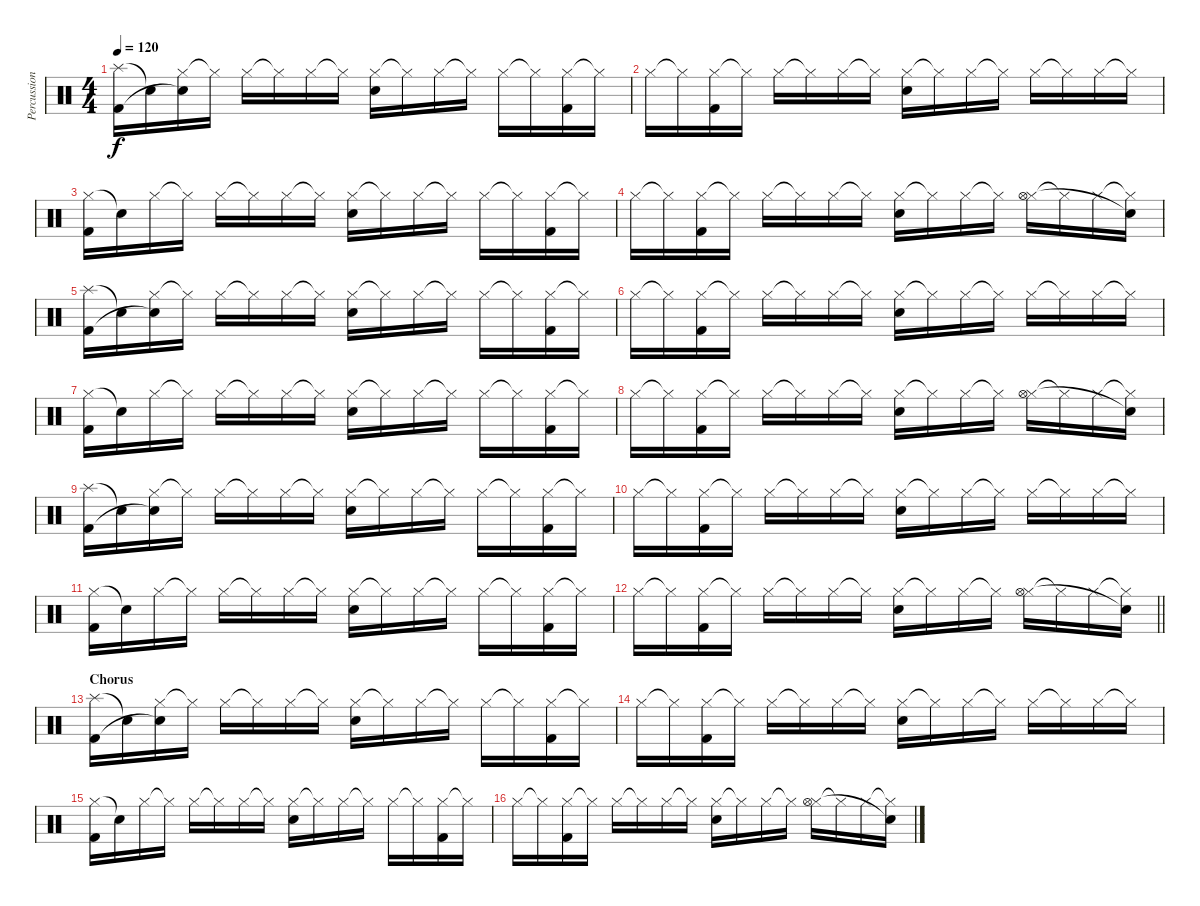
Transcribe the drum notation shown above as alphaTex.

\track ("Percussion" "Percussion") {instrument percussion}
\staff {score}
\articulation defaults
\ts (4 4)
\tempo 120
\clef neutral
\ks c
("Splash (hit)" "Kick (hit) 2").16{dy f} "Snare (hit)"{t}.16 ("Hi-Hat (closed)" "Snare (hit)"{t}).16 "Hi-Hat (closed)"{t}.16 "Hi-Hat (closed)".16 "Hi-Hat (closed)"{t}.16 "Hi-Hat (closed)".16 "Hi-Hat (closed)"{t}.16 ("Hi-Hat (closed)" "Snare (hit) 2").16 "Hi-Hat (closed)"{t}.16 "Hi-Hat (closed)".16 "Hi-Hat (closed)"{t}.16 "Hi-Hat (closed)".16 "Hi-Hat (closed)"{t}.16 ("Hi-Hat (closed)" "Kick (hit) 2").16 "Hi-Hat (closed)"{t}.16 |
"Hi-Hat (closed)".16 "Hi-Hat (closed)"{t}.16 ("Hi-Hat (closed)" "Kick (hit) 2").16 "Hi-Hat (closed)"{t}.16 "Hi-Hat (closed)".16 "Hi-Hat (closed)"{t}.16 "Hi-Hat (closed)".16 "Hi-Hat (closed)"{t}.16 ("Hi-Hat (closed)" "Snare (hit) 2").16 "Hi-Hat (closed)"{t}.16 "Hi-Hat (closed)".16 "Hi-Hat (closed)"{t}.16 "Hi-Hat (closed)".16 "Hi-Hat (closed)"{t}.16 "Hi-Hat (closed)".16 "Hi-Hat (closed)"{t}.16 |
("Hi-Hat (closed)" "Kick (hit) 2").16 "Snare (hit)"{t}.16 "Hi-Hat (closed)".16 "Hi-Hat (closed)"{t}.16 "Hi-Hat (closed)".16 "Hi-Hat (closed)"{t}.16 "Hi-Hat (closed)".16 "Hi-Hat (closed)"{t}.16 ("Hi-Hat (closed)" "Snare (hit) 2").16 "Hi-Hat (closed)"{t}.16 "Hi-Hat (closed)".16 "Hi-Hat (closed)"{t}.16 "Hi-Hat (closed)".16 "Hi-Hat (closed)"{t}.16 ("Hi-Hat (closed)" "Kick (hit) 2").16 "Hi-Hat (closed)"{t}.16 |
"Hi-Hat (closed)".16 "Hi-Hat (closed)"{t}.16 ("Hi-Hat (closed)" "Kick (hit) 2").16 "Hi-Hat (closed)"{t}.16 "Hi-Hat (closed)".16 "Hi-Hat (closed)"{t}.16 "Hi-Hat (closed)".16 "Hi-Hat (closed)"{t}.16 ("Hi-Hat (closed)" "Snare (hit) 2").16 "Hi-Hat (closed)"{t}.16 "Hi-Hat (closed)".16 "Hi-Hat (closed)"{t}.16 ("Hi-Hat (closed)" "Hi-Hat (open)").16 "Hi-Hat (closed)"{t}.16 "Hi-Hat (closed)".16 ("Hi-Hat (closed)"{t} "Snare (hit)"{t}).16 |
("Splash (hit)" "Kick (hit) 2").16 "Snare (hit)"{t}.16 ("Hi-Hat (closed)" "Snare (hit)"{t}).16 "Hi-Hat (closed)"{t}.16 "Hi-Hat (closed)".16 "Hi-Hat (closed)"{t}.16 "Hi-Hat (closed)".16 "Hi-Hat (closed)"{t}.16 ("Hi-Hat (closed)" "Snare (hit) 2").16 "Hi-Hat (closed)"{t}.16 "Hi-Hat (closed)".16 "Hi-Hat (closed)"{t}.16 "Hi-Hat (closed)".16 "Hi-Hat (closed)"{t}.16 ("Hi-Hat (closed)" "Kick (hit) 2").16 "Hi-Hat (closed)"{t}.16 |
"Hi-Hat (closed)".16 "Hi-Hat (closed)"{t}.16 ("Hi-Hat (closed)" "Kick (hit) 2").16 "Hi-Hat (closed)"{t}.16 "Hi-Hat (closed)".16 "Hi-Hat (closed)"{t}.16 "Hi-Hat (closed)".16 "Hi-Hat (closed)"{t}.16 ("Hi-Hat (closed)" "Snare (hit) 2").16 "Hi-Hat (closed)"{t}.16 "Hi-Hat (closed)".16 "Hi-Hat (closed)"{t}.16 "Hi-Hat (closed)".16 "Hi-Hat (closed)"{t}.16 "Hi-Hat (closed)".16 "Hi-Hat (closed)"{t}.16 |
("Hi-Hat (closed)" "Kick (hit) 2").16 "Snare (hit)"{t}.16 "Hi-Hat (closed)".16 "Hi-Hat (closed)"{t}.16 "Hi-Hat (closed)".16 "Hi-Hat (closed)"{t}.16 "Hi-Hat (closed)".16 "Hi-Hat (closed)"{t}.16 ("Hi-Hat (closed)" "Snare (hit) 2").16 "Hi-Hat (closed)"{t}.16 "Hi-Hat (closed)".16 "Hi-Hat (closed)"{t}.16 "Hi-Hat (closed)".16 "Hi-Hat (closed)"{t}.16 ("Hi-Hat (closed)" "Kick (hit) 2").16 "Hi-Hat (closed)"{t}.16 |
"Hi-Hat (closed)".16 "Hi-Hat (closed)"{t}.16 ("Hi-Hat (closed)" "Kick (hit) 2").16 "Hi-Hat (closed)"{t}.16 "Hi-Hat (closed)".16 "Hi-Hat (closed)"{t}.16 "Hi-Hat (closed)".16 "Hi-Hat (closed)"{t}.16 ("Hi-Hat (closed)" "Snare (hit) 2").16 "Hi-Hat (closed)"{t}.16 "Hi-Hat (closed)".16 "Hi-Hat (closed)"{t}.16 ("Hi-Hat (closed)" "Hi-Hat (open)").16 "Hi-Hat (closed)"{t}.16 "Hi-Hat (closed)".16 ("Hi-Hat (closed)"{t} "Snare (hit)"{t}).16 |
("Splash (hit)" "Kick (hit) 2").16 "Snare (hit)"{t}.16 ("Hi-Hat (closed)" "Snare (hit)"{t}).16 "Hi-Hat (closed)"{t}.16 "Hi-Hat (closed)".16 "Hi-Hat (closed)"{t}.16 "Hi-Hat (closed)".16 "Hi-Hat (closed)"{t}.16 ("Hi-Hat (closed)" "Snare (hit) 2").16 "Hi-Hat (closed)"{t}.16 "Hi-Hat (closed)".16 "Hi-Hat (closed)"{t}.16 "Hi-Hat (closed)".16 "Hi-Hat (closed)"{t}.16 ("Hi-Hat (closed)" "Kick (hit) 2").16 "Hi-Hat (closed)"{t}.16 |
"Hi-Hat (closed)".16 "Hi-Hat (closed)"{t}.16 ("Hi-Hat (closed)" "Kick (hit) 2").16 "Hi-Hat (closed)"{t}.16 "Hi-Hat (closed)".16 "Hi-Hat (closed)"{t}.16 "Hi-Hat (closed)".16 "Hi-Hat (closed)"{t}.16 ("Hi-Hat (closed)" "Snare (hit) 2").16 "Hi-Hat (closed)"{t}.16 "Hi-Hat (closed)".16 "Hi-Hat (closed)"{t}.16 "Hi-Hat (closed)".16 "Hi-Hat (closed)"{t}.16 "Hi-Hat (closed)".16 "Hi-Hat (closed)"{t}.16 |
("Hi-Hat (closed)" "Kick (hit) 2").16 "Snare (hit)"{t}.16 "Hi-Hat (closed)".16 "Hi-Hat (closed)"{t}.16 "Hi-Hat (closed)".16 "Hi-Hat (closed)"{t}.16 "Hi-Hat (closed)".16 "Hi-Hat (closed)"{t}.16 ("Hi-Hat (closed)" "Snare (hit) 2").16 "Hi-Hat (closed)"{t}.16 "Hi-Hat (closed)".16 "Hi-Hat (closed)"{t}.16 "Hi-Hat (closed)".16 "Hi-Hat (closed)"{t}.16 ("Hi-Hat (closed)" "Kick (hit) 2").16 "Hi-Hat (closed)"{t}.16 |
\barLineRight lightlight "Hi-Hat (closed)".16 "Hi-Hat (closed)"{t}.16
("Hi-Hat (closed)" "Kick (hit) 2").16 "Hi-Hat (closed)"{t}.16 "Hi-Hat (closed)".16 "Hi-Hat (closed)"{t}.16 "Hi-Hat (closed)".16 "Hi-Hat (closed)"{t}.16 ("Hi-Hat (closed)" "Snare (hit) 2").16 "Hi-Hat (closed)"{t}.16 "Hi-Hat (closed)".16 "Hi-Hat (closed)"{t}.16 ("Hi-Hat (closed)" "Hi-Hat (open)").16 "Hi-Hat (closed)"{t}.16 "Hi-Hat (closed)".16 ("Hi-Hat (closed)"{t} "Snare (hit)"{t}).16 |
\section ("" "Chorus")
("Splash (hit)" "Kick (hit) 2").16 "Snare (hit)"{t}.16 ("Hi-Hat (closed)" "Snare (hit)"{t}).16 "Hi-Hat (closed)"{t}.16 "Hi-Hat (closed)".16 "Hi-Hat (closed)"{t}.16 "Hi-Hat (closed)".16 "Hi-Hat (closed)"{t}.16 ("Hi-Hat (closed)" "Snare (hit) 2").16 "Hi-Hat (closed)"{t}.16 "Hi-Hat (closed)".16 "Hi-Hat (closed)"{t}.16 "Hi-Hat (closed)".16 "Hi-Hat (closed)"{t}.16 ("Hi-Hat (closed)" "Kick (hit) 2").16 "Hi-Hat (closed)"{t}.16 |
"Hi-Hat (closed)".16 "Hi-Hat (closed)"{t}.16 ("Hi-Hat (closed)" "Kick (hit) 2").16 "Hi-Hat (closed)"{t}.16 "Hi-Hat (closed)".16 "Hi-Hat (closed)"{t}.16 "Hi-Hat (closed)".16 "Hi-Hat (closed)"{t}.16 ("Hi-Hat (closed)" "Snare (hit) 2").16 "Hi-Hat (closed)"{t}.16 "Hi-Hat (closed)".16 "Hi-Hat (closed)"{t}.16 "Hi-Hat (closed)".16 "Hi-Hat (closed)"{t}.16 "Hi-Hat (closed)".16 "Hi-Hat (closed)"{t}.16 |
("Hi-Hat (closed)" "Kick (hit) 2").16 "Snare (hit)"{t}.16 "Hi-Hat (closed)".16 "Hi-Hat (closed)"{t}.16 "Hi-Hat (closed)".16 "Hi-Hat (closed)"{t}.16 "Hi-Hat (closed)".16 "Hi-Hat (closed)"{t}.16 ("Hi-Hat (closed)" "Snare (hit) 2").16 "Hi-Hat (closed)"{t}.16 "Hi-Hat (closed)".16 "Hi-Hat (closed)"{t}.16 "Hi-Hat (closed)".16 "Hi-Hat (closed)"{t}.16 ("Hi-Hat (closed)" "Kick (hit) 2").16 "Hi-Hat (closed)"{t}.16 |
"Hi-Hat (closed)".16 "Hi-Hat (closed)"{t}.16 ("Hi-Hat (closed)" "Kick (hit) 2").16 "Hi-Hat (closed)"{t}.16 "Hi-Hat (closed)".16 "Hi-Hat (closed)"{t}.16 "Hi-Hat (closed)".16 "Hi-Hat (closed)"{t}.16 ("Hi-Hat (closed)" "Snare (hit) 2").16 "Hi-Hat (closed)"{t}.16 "Hi-Hat (closed)".16 "Hi-Hat (closed)"{t}.16 ("Hi-Hat (closed)" "Hi-Hat (open)").16 "Hi-Hat (closed)"{t}.16 "Hi-Hat (closed)".16 ("Hi-Hat (closed)"{t} "Snare (hit)"{t}).16
